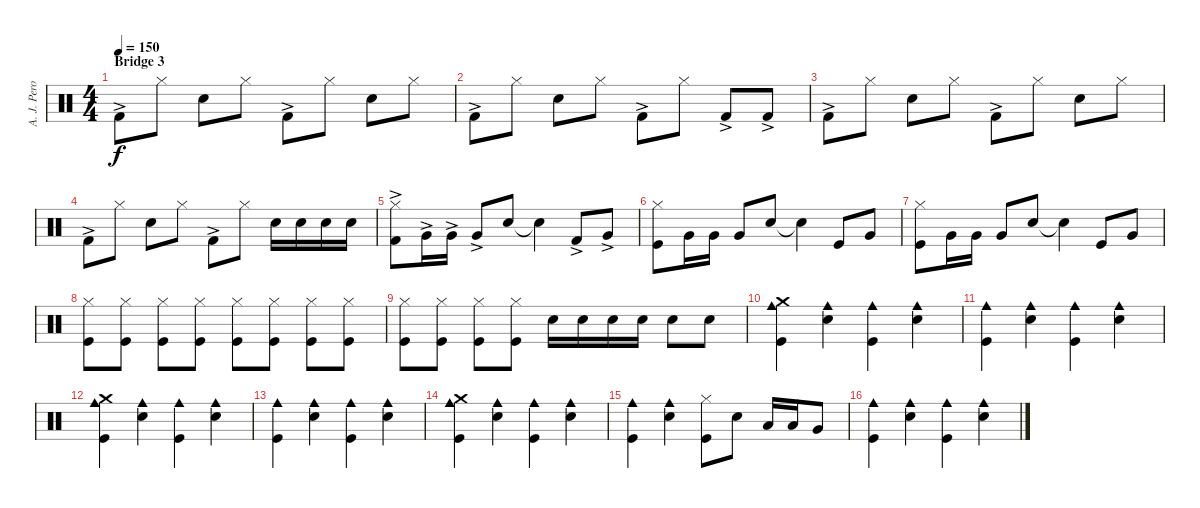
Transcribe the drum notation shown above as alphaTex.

\track ("A. J. Pero - Drums" "A. J. Pero") {instrument percussion}
\staff {score}
\articulation defaults
\ts (4 4)
\section ("" "Bridge 3")
\tempo 150
\clef neutral
\ks c "Kick (hit) 2"{ac}.8{dy f} "Hi-Hat (closed)".8 "Electric Snare (hit)".8 "Hi-Hat (closed)".8 "Kick (hit) 2"{ac}.8 "Hi-Hat (closed)".8 "Electric Snare (hit)".8 "Hi-Hat (closed)".8
|
"Kick (hit) 2"{ac}.8 "Hi-Hat (closed)".8 "Electric Snare (hit)".8 "Hi-Hat (closed)".8 "Kick (hit) 2"{ac}.8 "Hi-Hat (closed)".8 "Kick (hit) 2"{ac}.8 "Kick (hit) 2"{ac}.8 |
"Kick (hit) 2"{ac}.8 "Hi-Hat (closed)".8 "Electric Snare (hit)".8 "Hi-Hat (closed)".8 "Kick (hit) 2"{ac}.8 "Hi-Hat (closed)".8 "Electric Snare (hit)".8 "Hi-Hat (closed)".8 |
"Kick (hit) 2"{ac}.8 "Hi-Hat (closed)".8 "Electric Snare (hit)".8 "Hi-Hat (closed)".8 "Kick (hit) 2"{ac}.8 "Hi-Hat (closed)".8 "Electric Snare (hit)".16 "Electric Snare (hit)".16 "Electric Snare (hit)".16 "Electric Snare (hit)".16 |
("Hi-Hat (closed)" "Kick (hit) 2"{ac}).8 "Very Low Tom (hit)"{ac}.16 "Very Low Tom (hit)"{ac}.16 "Very Low Tom (hit)"{ac}.8 "Electric Snare (hit)".8 "Electric Snare (hit)"{t}.4 "Kick (hit) 2"{ac}.8 "Very Low Tom (hit)"{ac}.8 |
("Hi-Hat (closed)" "Kick (hit)").8 "Very Low Tom (hit)".16 "Very Low Tom (hit)".16 "Very Low Tom (hit)".8 "Snare (hit) 2".8 "Snare (hit) 2"{t}.4 "Kick (hit)".8 "Very Low Tom (hit)".8 |
("Hi-Hat (closed)" "Kick (hit)").8 "Very Low Tom (hit)".16 "Very Low Tom (hit)".16 "Very Low Tom (hit)".8 "Snare (hit) 2".8 "Snare (hit) 2"{t}.4 "Kick (hit)".8 "Very Low Tom (hit)".8 |
("Hi-Hat (closed)" "Kick (hit)").8 ("Hi-Hat (closed)" "Kick (hit)").8 ("Hi-Hat (closed)" "Kick (hit)").8 ("Hi-Hat (closed)" "Kick (hit)").8 ("Hi-Hat (closed)" "Kick (hit)").8 ("Hi-Hat (closed)" "Kick (hit)").8 ("Hi-Hat (closed)" "Kick (hit)").8 ("Hi-Hat (closed)" "Kick (hit)").8 |
("Hi-Hat (closed)" "Kick (hit)").8 ("Hi-Hat (closed)" "Kick (hit)").8 ("Hi-Hat (closed)" "Kick (hit)").8 ("Hi-Hat (closed)" "Kick (hit)").8 "Snare (hit) 2".16 "Snare (hit) 2".16 "Snare (hit) 2".16 "Snare (hit) 2".16 "Snare (hit) 2".8 "Snare (hit) 2".8 |
("Crash medium (hit)" "Cowbell medium (hit)" "Kick (hit)").4 ("Cowbell medium (hit)" "Snare (hit) 2").4 ("Cowbell medium (hit)" "Kick (hit)").4 ("Cowbell medium (hit)" "Snare (hit) 2").4 |
("Cowbell medium (hit)" "Kick (hit)").4 ("Cowbell medium (hit)" "Snare (hit) 2").4 ("Cowbell medium (hit)" "Kick (hit)").4 ("Cowbell medium (hit)" "Snare (hit) 2").4 |
("Crash medium (hit)" "Cowbell medium (hit)" "Kick (hit)").4 ("Cowbell medium (hit)" "Snare (hit) 2").4 ("Cowbell medium (hit)" "Kick (hit)").4 ("Cowbell medium (hit)" "Snare (hit) 2").4 |
("Cowbell medium (hit)" "Kick (hit)").4 ("Cowbell medium (hit)" "Snare (hit) 2").4 ("Cowbell medium (hit)" "Kick (hit)").4 ("Cowbell medium (hit)" "Snare (hit) 2").4 |
("Crash medium (hit)" "Cowbell medium (hit)" "Kick (hit)").4 ("Cowbell medium (hit)" "Snare (hit) 2").4 ("Cowbell medium (hit)" "Kick (hit)").4 ("Cowbell medium (hit)" "Snare (hit) 2").4 |
("Cowbell medium (hit)" "Kick (hit)").4 ("Cowbell medium (hit)" "Snare (hit) 2").4 ("Hi-Hat (closed)" "Kick (hit)").8 "Snare (hit) 2".8 "Low Floor Tom (hit)".16 "Low Floor Tom (hit)".16 "Very Low Tom (hit)".8 |
("Cowbell medium (hit)" "Kick (hit)").4 ("Cowbell medium (hit)" "Snare (hit) 2").4 ("Cowbell medium (hit)" "Kick (hit)").4 ("Cowbell medium (hit)" "Snare (hit) 2").4
